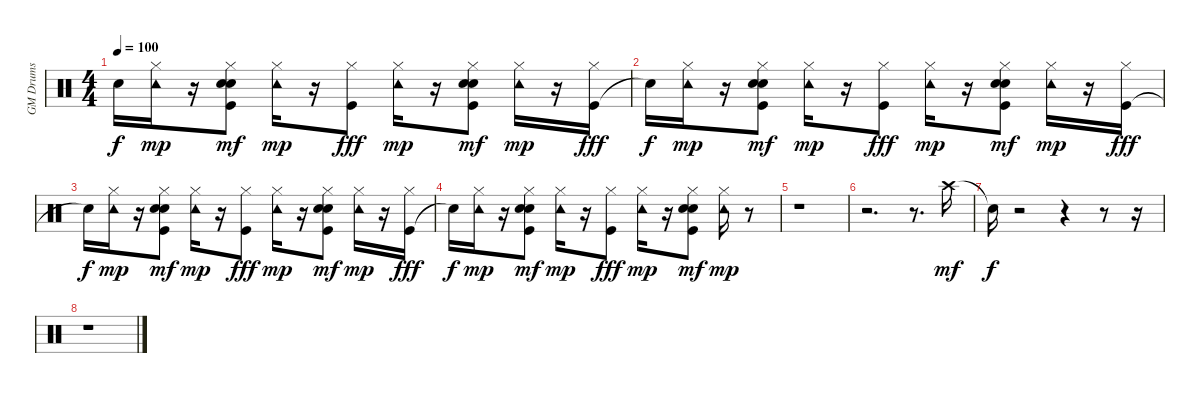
\track ("GM Drums" "GM Drums") {instrument percussion}
\staff {score}
\articulation defaults
\ts (4 4)
\tempo 100
\clef neutral
\ks c "Snare (hit)"{t}.16{dy f}
("Hi-Hat (closed)" "Tambourine (hit)").16{dy mp} r.16 ("Kick (hit)" "Snare (hit) 2" "Hand Clap (hit)" "Hi-Hat (closed)").8{dy mf} ("Hi-Hat (closed)" "Tambourine (hit)").16{dy mp} r.16 ("Kick (hit)" "Hi-Hat (closed)").8{dy fff} ("Hi-Hat (closed)" "Tambourine (hit)").16{dy mp} r.16 ("Kick (hit)" "Snare (hit) 2" "Hand Clap (hit)" "Hi-Hat (closed)").8{dy mf} ("Hi-Hat (closed)" "Tambourine (hit)").16{dy mp} r.16 ("Kick (hit)" "Hi-Hat (closed)").16{dy fff} |
"Snare (hit)"{t}.16{dy f} ("Hi-Hat (closed)" "Tambourine (hit)").16{dy mp} r.16 ("Kick (hit)" "Snare (hit) 2" "Hand Clap (hit)" "Hi-Hat (closed)").8{dy mf} ("Hi-Hat (closed)" "Tambourine (hit)").16{dy mp} r.16 ("Kick (hit)" "Hi-Hat (closed)").8{dy fff} ("Hi-Hat (closed)" "Tambourine (hit)").16{dy mp} r.16 ("Kick (hit)" "Snare (hit) 2" "Hand Clap (hit)" "Hi-Hat (closed)").8{dy mf} ("Hi-Hat (closed)" "Tambourine (hit)").16{dy mp} r.16 ("Kick (hit)" "Hi-Hat (closed)").16{dy fff} |
"Snare (hit)"{t}.16{dy f} ("Hi-Hat (closed)" "Tambourine (hit)").16{dy mp} r.16 ("Kick (hit)" "Snare (hit) 2" "Hand Clap (hit)" "Hi-Hat (closed)").8{dy mf} ("Hi-Hat (closed)" "Tambourine (hit)").16{dy mp} r.16 ("Kick (hit)" "Hi-Hat (closed)").8{dy fff} ("Hi-Hat (closed)" "Tambourine (hit)").16{dy mp} r.16 ("Kick (hit)" "Snare (hit) 2" "Hand Clap (hit)" "Hi-Hat (closed)").8{dy mf} ("Hi-Hat (closed)" "Tambourine (hit)").16{dy mp} r.16 ("Kick (hit)" "Hi-Hat (closed)").16{dy fff} |
"Snare (hit)"{t}.16{dy f} ("Hi-Hat (closed)" "Tambourine (hit)").16{dy mp} r.16 ("Kick (hit)" "Snare (hit) 2" "Hand Clap (hit)" "Hi-Hat (closed)").8{dy mf} ("Hi-Hat (closed)" "Tambourine (hit)").16{dy mp} r.16 ("Kick (hit)" "Hi-Hat (closed)").8{dy fff} ("Hi-Hat (closed)" "Tambourine (hit)").16{dy mp} r.16 ("Kick (hit)" "Snare (hit) 2" "Hand Clap (hit)" "Hi-Hat (closed)").8{dy mf} ("Hi-Hat (closed)" "Tambourine (hit)").16{dy mp} r.8 |
r.1 |
r.2{d} r.8{d} "Crash high (hit)".16{dy mf} |
"Snare (hit)"{t}.16{dy f} r.2 r.4 r.8 r.16 |
r.1
